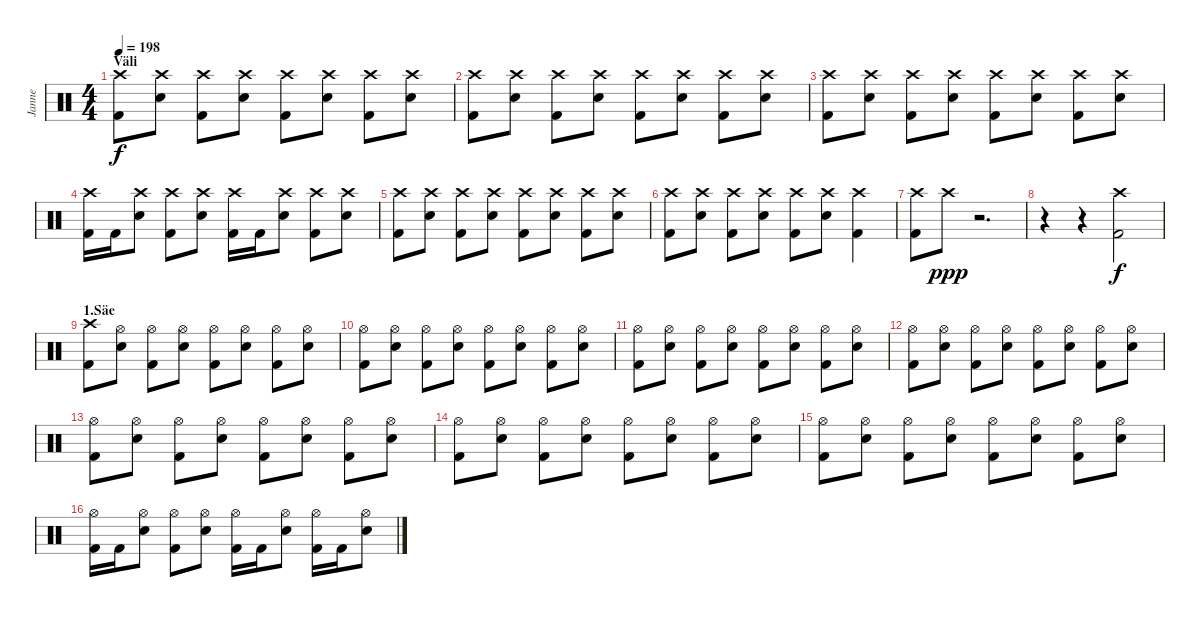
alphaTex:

\track ("Janne" "Janne") {instrument percussion}
\staff {score}
\articulation defaults
\ts (4 4)
\section ("" "Väli")
\tempo 198
\clef neutral
\ks c
("Crash high (hit)" "Kick (hit) 2").8{dy f} ("Crash high (hit)" "Electric Snare (hit)").8 ("Crash high (hit)" "Kick (hit) 2").8 ("Crash high (hit)" "Electric Snare (hit)").8 ("Crash high (hit)" "Kick (hit) 2").8 ("Crash high (hit)" "Electric Snare (hit)").8 ("Crash high (hit)" "Kick (hit) 2").8 ("Crash high (hit)" "Electric Snare (hit)").8 |
("Crash high (hit)" "Kick (hit) 2").8 ("Crash high (hit)" "Electric Snare (hit)").8 ("Crash high (hit)" "Kick (hit) 2").8 ("Crash high (hit)" "Electric Snare (hit)").8 ("Crash high (hit)" "Kick (hit) 2").8 ("Crash high (hit)" "Electric Snare (hit)").8 ("Crash high (hit)" "Kick (hit) 2").8 ("Crash high (hit)" "Electric Snare (hit)").8 |
("Crash high (hit)" "Kick (hit) 2").8 ("Crash high (hit)" "Electric Snare (hit)").8 ("Crash high (hit)" "Kick (hit) 2").8 ("Crash high (hit)" "Electric Snare (hit)").8 ("Crash high (hit)" "Kick (hit) 2").8 ("Crash high (hit)" "Electric Snare (hit)").8 ("Crash high (hit)" "Kick (hit) 2").8 ("Crash high (hit)" "Electric Snare (hit)").8 |
("Crash high (hit)" "Kick (hit) 2").16 "Kick (hit) 2".16 ("Crash high (hit)" "Electric Snare (hit)").8 ("Crash high (hit)" "Kick (hit) 2").8 ("Crash high (hit)" "Electric Snare (hit)").8 ("Crash high (hit)" "Kick (hit) 2").16 "Kick (hit) 2".16 ("Crash high (hit)" "Electric Snare (hit)").8 ("Crash high (hit)" "Kick (hit) 2").8 ("Crash high (hit)" "Electric Snare (hit)").8 |
("Crash high (hit)" "Kick (hit) 2").8 ("Crash high (hit)" "Electric Snare (hit)").8 ("Crash high (hit)" "Kick (hit) 2").8 ("Crash high (hit)" "Electric Snare (hit)").8 ("Crash high (hit)" "Kick (hit) 2").8 ("Crash high (hit)" "Electric Snare (hit)").8 ("Crash high (hit)" "Kick (hit) 2").8 ("Crash high (hit)" "Electric Snare (hit)").8 |
("Crash high (hit)" "Kick (hit) 2").8 ("Crash high (hit)" "Electric Snare (hit)").8 ("Crash high (hit)" "Kick (hit) 2").8 ("Crash high (hit)" "Electric Snare (hit)").8 ("Crash high (hit)" "Kick (hit) 2").8 ("Crash high (hit)" "Electric Snare (hit)").8 ("Crash high (hit)" "Kick (hit) 2").4 |
("Crash high (hit)" "Kick (hit) 2").8 "Crash high (hit)".8{dy ppp} r.2{d} |
r.4 r.4 ("Crash high (hit)" "Kick (hit) 2").2{dy f} |
\section ("" "1.Säe")
("Crash high (hit)" "Kick (hit) 2").8 ("Hi-Hat (open)" "Electric Snare (hit)").8 ("Hi-Hat (open)" "Kick (hit) 2").8 ("Hi-Hat (open)" "Electric Snare (hit)").8 ("Hi-Hat (open)" "Kick (hit) 2").8 ("Hi-Hat (open)" "Electric Snare (hit)").8 ("Hi-Hat (open)" "Kick (hit) 2").8 ("Hi-Hat (open)" "Electric Snare (hit)").8 |
("Hi-Hat (open)" "Kick (hit) 2").8 ("Hi-Hat (open)" "Electric Snare (hit)").8 ("Hi-Hat (open)" "Kick (hit) 2").8 ("Hi-Hat (open)" "Electric Snare (hit)").8 ("Hi-Hat (open)" "Kick (hit) 2").8 ("Hi-Hat (open)" "Electric Snare (hit)").8 ("Hi-Hat (open)" "Kick (hit) 2").8 ("Hi-Hat (open)" "Electric Snare (hit)").8 |
("Hi-Hat (open)" "Kick (hit) 2").8 ("Hi-Hat (open)" "Electric Snare (hit)").8 ("Hi-Hat (open)" "Kick (hit) 2").8 ("Hi-Hat (open)" "Electric Snare (hit)").8 ("Hi-Hat (open)" "Kick (hit) 2").8 ("Hi-Hat (open)" "Electric Snare (hit)").8 ("Hi-Hat (open)" "Kick (hit) 2").8 ("Hi-Hat (open)" "Electric Snare (hit)").8 |
("Hi-Hat (open)" "Kick (hit) 2").8 ("Hi-Hat (open)" "Electric Snare (hit)").8 ("Hi-Hat (open)" "Kick (hit) 2").8 ("Hi-Hat (open)" "Electric Snare (hit)").8 ("Hi-Hat (open)" "Kick (hit) 2").8 ("Hi-Hat (open)" "Electric Snare (hit)").8 ("Hi-Hat (open)" "Kick (hit) 2").8 ("Hi-Hat (open)" "Electric Snare (hit)").8 |
("Hi-Hat (open)" "Kick (hit) 2").8 ("Hi-Hat (open)" "Electric Snare (hit)").8 ("Hi-Hat (open)" "Kick (hit) 2").8 ("Hi-Hat (open)" "Electric Snare (hit)").8 ("Hi-Hat (open)" "Kick (hit) 2").8 ("Hi-Hat (open)" "Electric Snare (hit)").8 ("Hi-Hat (open)" "Kick (hit) 2").8 ("Hi-Hat (open)" "Electric Snare (hit)").8 |
("Hi-Hat (open)" "Kick (hit) 2").8 ("Hi-Hat (open)" "Electric Snare (hit)").8 ("Hi-Hat (open)" "Kick (hit) 2").8 ("Hi-Hat (open)" "Electric Snare (hit)").8 ("Hi-Hat (open)" "Kick (hit) 2").8 ("Hi-Hat (open)" "Electric Snare (hit)").8 ("Hi-Hat (open)" "Kick (hit) 2").8 ("Hi-Hat (open)" "Electric Snare (hit)").8 |
("Hi-Hat (open)" "Kick (hit) 2").8 ("Hi-Hat (open)" "Electric Snare (hit)").8 ("Hi-Hat (open)" "Kick (hit) 2").8 ("Hi-Hat (open)" "Electric Snare (hit)").8 ("Hi-Hat (open)" "Kick (hit) 2").8 ("Hi-Hat (open)" "Electric Snare (hit)").8 ("Hi-Hat (open)" "Kick (hit) 2").8 ("Hi-Hat (open)" "Electric Snare (hit)").8 |
("Hi-Hat (open)" "Kick (hit) 2").16 "Kick (hit) 2".16 ("Hi-Hat (open)" "Electric Snare (hit)").8 ("Hi-Hat (open)" "Kick (hit) 2").8 ("Hi-Hat (open)" "Electric Snare (hit)").8 ("Hi-Hat (open)" "Kick (hit) 2").16 "Kick (hit) 2".16 ("Hi-Hat (open)" "Electric Snare (hit)").8 ("Hi-Hat (open)" "Kick (hit) 2").16 "Kick (hit) 2".16 ("Hi-Hat (open)" "Electric Snare (hit)").8
